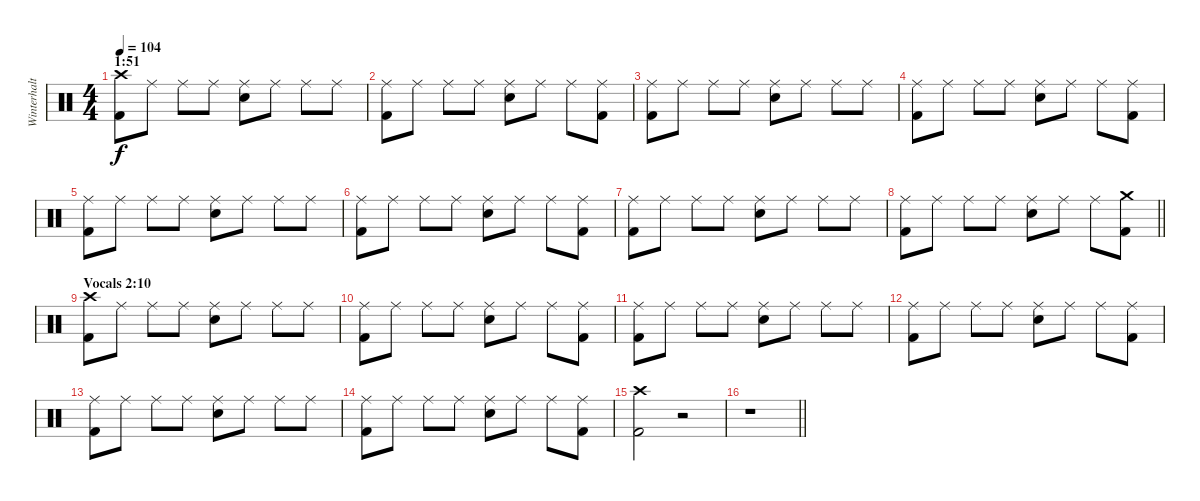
\track ("Winterhalten" "Winterhalt") {instrument percussion}
\staff {score}
\articulation defaults
\ts (4 4)
\section ("" "1:51")
\tempo 104
\clef neutral
\ks c
("Kick (hit) 2" "Crash high (hit)").8{dy f} "Ride (middle)".8 "Ride (middle)".8 "Ride (middle)".8 ("Ride (middle)" "Snare (hit) 2").8 "Ride (middle)".8 "Ride (middle)".8 "Ride (middle)".8 |
("Kick (hit) 2" "Ride (middle)").8 "Ride (middle)".8 "Ride (middle)".8 "Ride (middle)".8 ("Ride (middle)" "Snare (hit) 2").8 "Ride (middle)".8 "Ride (middle)".8 ("Kick (hit) 2" "Ride (middle)").8 |
("Kick (hit) 2" "Ride (middle)").8 "Ride (middle)".8 "Ride (middle)".8 "Ride (middle)".8 ("Ride (middle)" "Snare (hit) 2").8 "Ride (middle)".8 "Ride (middle)".8 "Ride (middle)".8 |
("Kick (hit) 2" "Ride (middle)").8 "Ride (middle)".8 "Ride (middle)".8 "Ride (middle)".8 ("Ride (middle)" "Snare (hit) 2").8 "Ride (middle)".8 "Ride (middle)".8 ("Kick (hit) 2" "Ride (middle)").8 |
("Kick (hit) 2" "Ride (middle)").8 "Ride (middle)".8 "Ride (middle)".8 "Ride (middle)".8 ("Ride (middle)" "Snare (hit) 2").8 "Ride (middle)".8 "Ride (middle)".8 "Ride (middle)".8 |
("Kick (hit) 2" "Ride (middle)").8 "Ride (middle)".8 "Ride (middle)".8 "Ride (middle)".8 ("Ride (middle)" "Snare (hit) 2").8 "Ride (middle)".8 "Ride (middle)".8 ("Kick (hit) 2" "Ride (middle)").8 |
("Kick (hit) 2" "Ride (middle)").8 "Ride (middle)".8 "Ride (middle)".8 "Ride (middle)".8 ("Ride (middle)" "Snare (hit) 2").8 "Ride (middle)".8 "Ride (middle)".8 "Ride (middle)".8 |
\barLineRight lightlight
("Kick (hit) 2" "Ride (middle)").8 "Ride (middle)".8 "Ride (middle)".8 "Ride (middle)".8 ("Ride (middle)" "Snare (hit) 2").8 "Ride (middle)".8 "Ride (middle)".8 ("Kick (hit) 2" "Crash medium (hit)").8 |
\section ("" "Vocals 2:10")
("Kick (hit) 2" "Crash high (hit)").8 "Ride (middle)".8 "Ride (middle)".8 "Ride (middle)".8 ("Ride (middle)" "Snare (hit) 2").8 "Ride (middle)".8 "Ride (middle)".8 "Ride (middle)".8 |
("Kick (hit) 2" "Ride (middle)").8 "Ride (middle)".8 "Ride (middle)".8 "Ride (middle)".8 ("Ride (middle)" "Snare (hit) 2").8 "Ride (middle)".8 "Ride (middle)".8 ("Kick (hit) 2" "Ride (middle)").8 |
("Kick (hit) 2" "Ride (middle)").8 "Ride (middle)".8 "Ride (middle)".8 "Ride (middle)".8 ("Ride (middle)" "Snare (hit) 2").8 "Ride (middle)".8 "Ride (middle)".8 "Ride (middle)".8 |
("Kick (hit) 2" "Ride (middle)").8 "Ride (middle)".8 "Ride (middle)".8 "Ride (middle)".8 ("Ride (middle)" "Snare (hit) 2").8 "Ride (middle)".8 "Ride (middle)".8 ("Kick (hit) 2" "Ride (middle)").8 |
("Kick (hit) 2" "Ride (middle)").8 "Ride (middle)".8 "Ride (middle)".8 "Ride (middle)".8 ("Ride (middle)" "Snare (hit) 2").8 "Ride (middle)".8 "Ride (middle)".8 "Ride (middle)".8 |
("Kick (hit) 2" "Ride (middle)").8 "Ride (middle)".8 "Ride (middle)".8 "Ride (middle)".8 ("Ride (middle)" "Snare (hit) 2").8 "Ride (middle)".8 "Ride (middle)".8 ("Kick (hit) 2" "Ride (middle)").8 |
("Kick (hit) 2" "Crash high (hit)").2 r.2 |
\barLineRight lightlight
r.1
